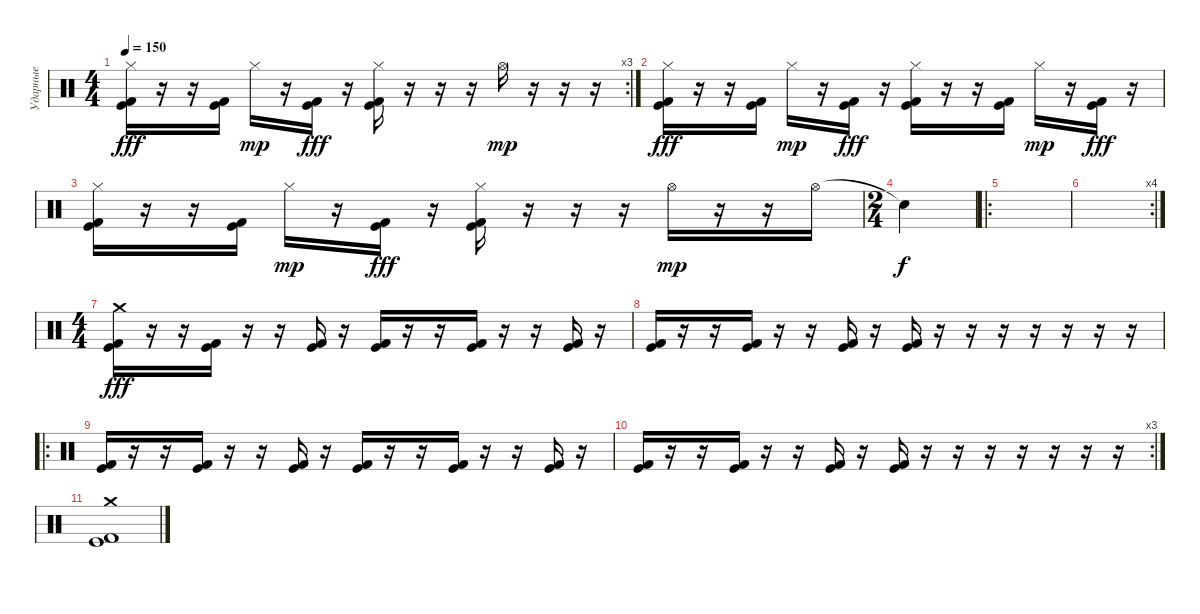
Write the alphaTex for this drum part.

\track ("Ударные" "Ударные") {instrument percussion}
\staff {score}
\articulation defaults
\rc 3
\ts (4 4)
\tempo 150
\clef neutral
\ks c
("Hi-Hat (closed)" "Kick (hit) 2" "Kick (hit)").16{dy fff} r.16 r.16 ("Kick (hit) 2" "Kick (hit)").16 "Hi-Hat (closed)".16{dy mp} r.16 ("Kick (hit) 2" "Kick (hit)").16{dy fff} r.16 ("Hi-Hat (closed)" "Kick (hit) 2" "Kick (hit)").16 r.16 r.16 r.16 "Hi-Hat (open)".16{dy mp} r.16 r.16 r.16 |
("Hi-Hat (closed)" "Kick (hit) 2" "Kick (hit)").16{dy fff} r.16 r.16 ("Kick (hit) 2" "Kick (hit)").16 "Hi-Hat (closed)".16{dy mp} r.16 ("Kick (hit) 2" "Kick (hit)").16{dy fff} r.16 ("Hi-Hat (closed)" "Kick (hit) 2" "Kick (hit)").16 r.16 r.16 ("Kick (hit) 2" "Kick (hit)").16 "Hi-Hat (closed)".16{dy mp} r.16 ("Kick (hit) 2" "Kick (hit)").16{dy fff} r.16 |
("Hi-Hat (closed)" "Kick (hit) 2" "Kick (hit)").16 r.16 r.16 ("Kick (hit) 2" "Kick (hit)").16 "Hi-Hat (closed)".16{dy mp} r.16 ("Kick (hit) 2" "Kick (hit)").16{dy fff} r.16 ("Hi-Hat (closed)" "Kick (hit) 2" "Kick (hit)").16 r.16 r.16 r.16 "Hi-Hat (open)".16{dy mp} r.16 r.16 "Hi-Hat (open)".16 |
\ts (2 4)
"Snare (hit)"{t}.4{dy f} |
\ro
|
\rc 4
|
\ts (4 4)
("Crash medium (hit)" "Kick (hit) 2" "Kick (hit)").16{dy fff} r.16 r.16 ("Kick (hit) 2" "Kick (hit)").16 r.16 r.16 ("Kick (hit) 2" "Kick (hit)").16 r.16 ("Kick (hit) 2" "Kick (hit)").16 r.16 r.16 ("Kick (hit) 2" "Kick (hit)").16 r.16 r.16 ("Kick (hit) 2" "Kick (hit)").16 r.16 |
("Kick (hit) 2" "Kick (hit)").16 r.16 r.16 ("Kick (hit) 2" "Kick (hit)").16 r.16 r.16 ("Kick (hit) 2" "Kick (hit)").16 r.16 ("Kick (hit) 2" "Kick (hit)").16 r.16 r.16 r.16 r.16 r.16 r.16 r.16 |
\ro
("Kick (hit) 2" "Kick (hit)").16 r.16 r.16 ("Kick (hit) 2" "Kick (hit)").16 r.16 r.16 ("Kick (hit) 2" "Kick (hit)").16 r.16 ("Kick (hit) 2" "Kick (hit)").16 r.16 r.16 ("Kick (hit) 2" "Kick (hit)").16 r.16 r.16 ("Kick (hit) 2" "Kick (hit)").16 r.16 |
\rc 3
("Kick (hit) 2" "Kick (hit)").16 r.16 r.16 ("Kick (hit) 2" "Kick (hit)").16 r.16 r.16 ("Kick (hit) 2" "Kick (hit)").16 r.16 ("Kick (hit) 2" "Kick (hit)").16 r.16 r.16 r.16 r.16 r.16 r.16 r.16 |
("Crash medium (hit)" "Kick (hit) 2" "Kick (hit)").1
